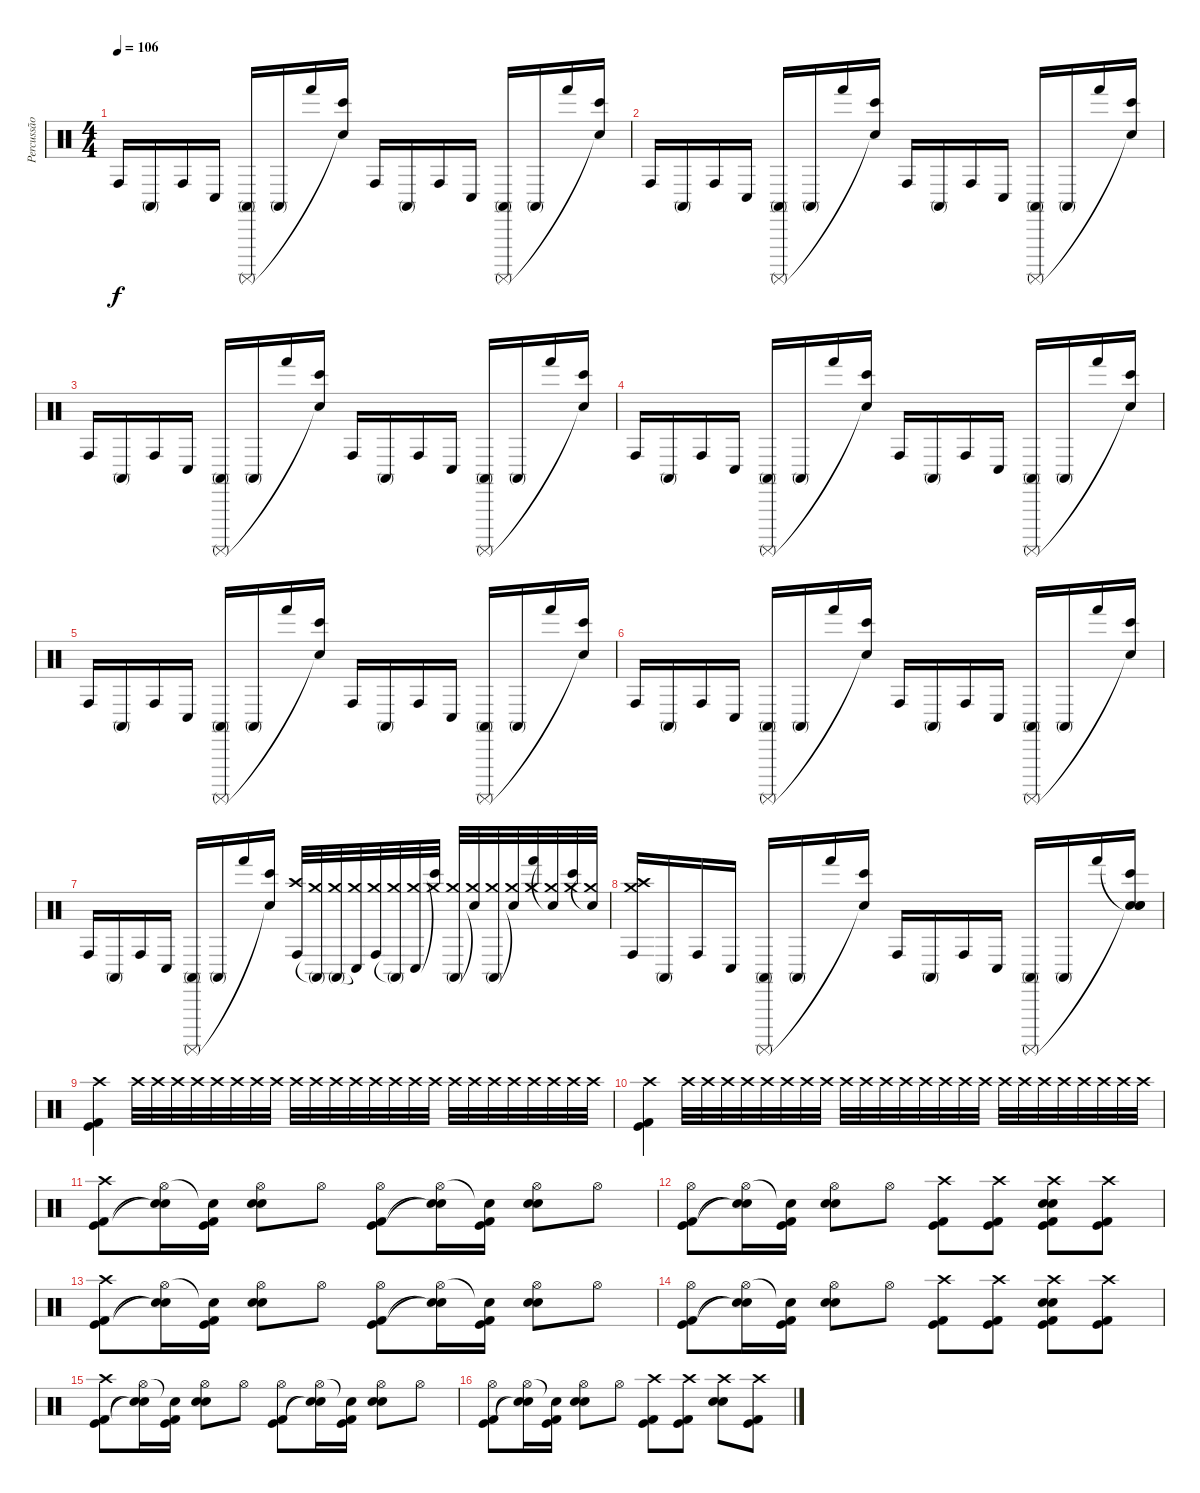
\track ("Percussão" "Percussão") {instrument percussion}
\staff {score}
\articulation defaults
\ts (4 4)
\tempo 106
\clef neutral
\ks c "Conga high (hit)".16{dy f} "Conga high (mute)".16 "Conga high (hit)".16 "Conga low (hit)".16
("Conga high (mute)" "Surdo (mute)").16 "Conga high (mute)".16 "Hand (hit)".16 ("Bongo High (hit)" "Snare (hit)"{t}).16 "Conga high (hit)".16 "Conga high (mute)".16 "Conga high (hit)".16 "Conga low (hit)".16 ("Conga high (mute)" "Surdo (mute)").16 "Conga high (mute)".16 "Hand (hit)".16 ("Bongo High (hit)" "Snare (hit)"{t}).16 |
"Conga high (hit)".16 "Conga high (mute)".16 "Conga high (hit)".16 "Conga low (hit)".16 ("Conga high (mute)" "Surdo (mute)").16 "Conga high (mute)".16 "Hand (hit)".16 ("Bongo High (hit)" "Snare (hit)"{t}).16 "Conga high (hit)".16 "Conga high (mute)".16 "Conga high (hit)".16 "Conga low (hit)".16 ("Conga high (mute)" "Surdo (mute)").16 "Conga high (mute)".16 "Hand (hit)".16 ("Bongo High (hit)" "Snare (hit)"{t}).16 |
"Conga high (hit)".16 "Conga high (mute)".16 "Conga high (hit)".16 "Conga low (hit)".16 ("Conga high (mute)" "Surdo (mute)").16 "Conga high (mute)".16 "Hand (hit)".16 ("Bongo High (hit)" "Snare (hit)"{t}).16 "Conga high (hit)".16 "Conga high (mute)".16 "Conga high (hit)".16 "Conga low (hit)".16 ("Conga high (mute)" "Surdo (mute)").16 "Conga high (mute)".16 "Hand (hit)".16 ("Bongo High (hit)" "Snare (hit)"{t}).16 |
"Conga high (hit)".16 "Conga high (mute)".16 "Conga high (hit)".16 "Conga low (hit)".16 ("Conga high (mute)" "Surdo (mute)").16 "Conga high (mute)".16 "Hand (hit)".16 ("Bongo High (hit)" "Snare (hit)"{t}).16 "Conga high (hit)".16 "Conga high (mute)".16 "Conga high (hit)".16 "Conga low (hit)".16 ("Conga high (mute)" "Surdo (mute)").16 "Conga high (mute)".16 "Hand (hit)".16 ("Bongo High (hit)" "Snare (hit)"{t}).16 |
"Conga high (hit)".16 "Conga high (mute)".16 "Conga high (hit)".16 "Conga low (hit)".16 ("Conga high (mute)" "Surdo (mute)").16 "Conga high (mute)".16 "Hand (hit)".16 ("Bongo High (hit)" "Snare (hit)"{t}).16 "Conga high (hit)".16 "Conga high (mute)".16 "Conga high (hit)".16 "Conga low (hit)".16 ("Conga high (mute)" "Surdo (mute)").16 "Conga high (mute)".16 "Hand (hit)".16 ("Bongo High (hit)" "Snare (hit)"{t}).16 |
"Conga high (hit)".16 "Conga high (mute)".16 "Conga high (hit)".16 "Conga low (hit)".16 ("Conga high (mute)" "Surdo (mute)").16 "Conga high (mute)".16 "Hand (hit)".16 ("Bongo High (hit)" "Snare (hit)"{t}).16 "Conga high (hit)".16 "Conga high (mute)".16 "Conga high (hit)".16 "Conga low (hit)".16 ("Conga high (mute)" "Surdo (mute)").16 "Conga high (mute)".16 "Hand (hit)".16 ("Bongo High (hit)" "Snare (hit)"{t}).16 |
"Conga high (hit)".16 "Conga high (mute)".16 "Conga high (hit)".16 "Conga low (hit)".16 ("Conga high (mute)" "Surdo (mute)").16 "Conga high (mute)".16 "Hand (hit)".16 ("Bongo High (hit)" "Snare (hit)"{t}).16 ("Crash high (hit)" "Conga high (hit)").32 ("Crash medium (hit)" "Conga high (mute)"{t}).32 ("Crash medium (hit)" "Conga high (mute)").32 ("Crash medium (hit)" "Conga low (hit)"{t}).32 ("Crash medium (hit)" "Conga high (hit)").32 ("Crash medium (hit)" "Conga high (mute)"{t}).32 ("Crash medium (hit)" "Conga low (hit)").32 ("Crash medium (hit)" "Bongo High (hit)"{t}).32 ("Crash medium (hit)" "Conga high (mute)").32 ("Crash medium (hit)" "Snare (hit)"{t}).32 ("Crash medium (hit)" "Conga high (mute)").32 ("Crash medium (hit)" "Snare (hit)"{t}).32 ("Crash medium (hit)" "Hand (hit)").32 ("Crash medium (hit)" "Snare (hit)"{t}).32 ("Crash medium (hit)" "Bongo High (hit)").32 ("Crash medium (hit)" "Snare (hit)"{t}).32 |
("Crash medium (hit)" "Crash high (hit)" "Conga high (hit)").16 "Conga high (mute)".16 "Conga high (hit)".16 "Conga low (hit)".16 ("Conga high (mute)" "Surdo (mute)").16 "Conga high (mute)".16 "Hand (hit)".16 ("Bongo High (hit)" "Snare (hit)"{t}).16 "Conga high (hit)".16 "Conga high (mute)".16 "Conga high (hit)".16 "Conga low (hit)".16 ("Conga high (mute)" "Surdo (mute)").16 "Conga high (mute)".16 "Hand (hit)".16 ("Snare (hit)"{t} "Snare (hit)"{t} "Bongo High (hit)" "Snare (hit)").16 |
("Crash high (hit)" "Kick (hit)" "Kick (hit) 2").4 "Crash high (hit)".32 "Crash high (hit)".32 "Crash high (hit)".32 "Crash high (hit)".32 "Crash high (hit)".32 "Crash high (hit)".32 "Crash high (hit)".32 "Crash high (hit)".32 "Crash high (hit)".32 "Crash high (hit)".32 "Crash high (hit)".32 "Crash high (hit)".32 "Crash high (hit)".32 "Crash high (hit)".32 "Crash high (hit)".32 "Crash high (hit)".32 "Crash high (hit)".32 "Crash high (hit)".32 "Crash high (hit)".32 "Crash high (hit)".32 "Crash high (hit)".32 "Crash high (hit)".32 "Crash high (hit)".32 "Crash high (hit)".32 |
("Crash high (hit)" "Kick (hit)" "Kick (hit) 2").4 "Crash high (hit)".32 "Crash high (hit)".32 "Crash high (hit)".32 "Crash high (hit)".32 "Crash high (hit)".32 "Crash high (hit)".32 "Crash high (hit)".32 "Crash high (hit)".32 "Crash high (hit)".32 "Crash high (hit)".32 "Crash high (hit)".32 "Crash high (hit)".32 "Crash high (hit)".32 "Crash high (hit)".32 "Crash high (hit)".32 "Crash high (hit)".32 "Crash high (hit)".32 "Crash high (hit)".32 "Crash high (hit)".32 "Crash high (hit)".32 "Crash high (hit)".32 "Crash high (hit)".32 "Crash high (hit)".32 "Crash high (hit)".32 |
("Crash high (hit)" "Kick (hit)" "Kick (hit) 2").8 ("Hi-Hat (open)" "Snare (hit)"{t} "Snare (hit)"{t}).16 ("Snare (hit)"{t} "Kick (hit) 2" "Kick (hit)").16 ("Hi-Hat (open)" "Electric Snare (hit)" "Snare (hit) 2").8 "Hi-Hat (open)".8 ("Hi-Hat (open)" "Kick (hit)" "Kick (hit) 2").8 ("Hi-Hat (open)" "Snare (hit)"{t} "Snare (hit)"{t}).16 ("Snare (hit)"{t} "Kick (hit) 2" "Kick (hit)").16 ("Hi-Hat (open)" "Electric Snare (hit)" "Snare (hit) 2").8 "Hi-Hat (open)".8 |
("Hi-Hat (open)" "Kick (hit)" "Kick (hit) 2").8 ("Hi-Hat (open)" "Snare (hit)"{t} "Snare (hit)"{t}).16 ("Snare (hit)"{t} "Kick (hit)" "Kick (hit) 2").16 ("Hi-Hat (open)" "Electric Snare (hit)" "Snare (hit) 2").8 "Hi-Hat (open)".8 ("Crash high (hit)" "Kick (hit)" "Kick (hit) 2").8 ("Crash high (hit)" "Kick (hit)" "Kick (hit) 2").8 ("Crash high (hit)" "Electric Snare (hit)" "Snare (hit) 2" "Kick (hit)" "Kick (hit) 2").8 ("Crash high (hit)" "Kick (hit)" "Kick (hit) 2").8 |
("Crash high (hit)" "Kick (hit)" "Kick (hit) 2").8 ("Hi-Hat (open)" "Snare (hit)"{t} "Snare (hit)"{t}).16 ("Snare (hit)"{t} "Kick (hit) 2" "Kick (hit)").16 ("Hi-Hat (open)" "Electric Snare (hit)" "Snare (hit) 2").8 "Hi-Hat (open)".8 ("Hi-Hat (open)" "Kick (hit)" "Kick (hit) 2").8 ("Hi-Hat (open)" "Snare (hit)"{t} "Snare (hit)"{t}).16 ("Snare (hit)"{t} "Kick (hit) 2" "Kick (hit)").16 ("Hi-Hat (open)" "Electric Snare (hit)" "Snare (hit) 2").8 "Hi-Hat (open)".8 |
("Hi-Hat (open)" "Kick (hit)" "Kick (hit) 2").8 ("Hi-Hat (open)" "Snare (hit)"{t} "Snare (hit)"{t}).16 ("Snare (hit)"{t} "Kick (hit)" "Kick (hit) 2").16 ("Hi-Hat (open)" "Electric Snare (hit)" "Snare (hit) 2").8 "Hi-Hat (open)".8 ("Crash high (hit)" "Kick (hit)" "Kick (hit) 2").8 ("Crash high (hit)" "Kick (hit)" "Kick (hit) 2").8 ("Crash high (hit)" "Electric Snare (hit)" "Snare (hit) 2" "Kick (hit)" "Kick (hit) 2").8 ("Crash high (hit)" "Kick (hit)" "Kick (hit) 2").8 |
("Crash high (hit)" "Kick (hit)" "Kick (hit) 2").8 ("Hi-Hat (open)" "Snare (hit)"{t} "Snare (hit)"{t}).16 ("Snare (hit)"{t} "Kick (hit) 2" "Kick (hit)").16 ("Hi-Hat (open)" "Electric Snare (hit)" "Snare (hit) 2").8 "Hi-Hat (open)".8 ("Hi-Hat (open)" "Kick (hit)" "Kick (hit) 2").8 ("Hi-Hat (open)" "Snare (hit)"{t} "Snare (hit)"{t}).16 ("Snare (hit)"{t} "Kick (hit) 2" "Kick (hit)").16 ("Hi-Hat (open)" "Electric Snare (hit)" "Snare (hit) 2").8 "Hi-Hat (open)".8 |
("Hi-Hat (open)" "Kick (hit)" "Kick (hit) 2").8 ("Hi-Hat (open)" "Snare (hit)"{t} "Snare (hit)"{t}).16 ("Snare (hit)"{t} "Kick (hit)" "Kick (hit) 2").16 ("Hi-Hat (open)" "Electric Snare (hit)" "Snare (hit) 2").8 "Hi-Hat (open)".8 ("Crash high (hit)" "Kick (hit)" "Kick (hit) 2").8 ("Crash high (hit)" "Kick (hit)" "Kick (hit) 2").8 ("Crash high (hit)" "Electric Snare (hit)" "Snare (hit) 2").8 ("Crash high (hit)" "Kick (hit)" "Kick (hit) 2").8
